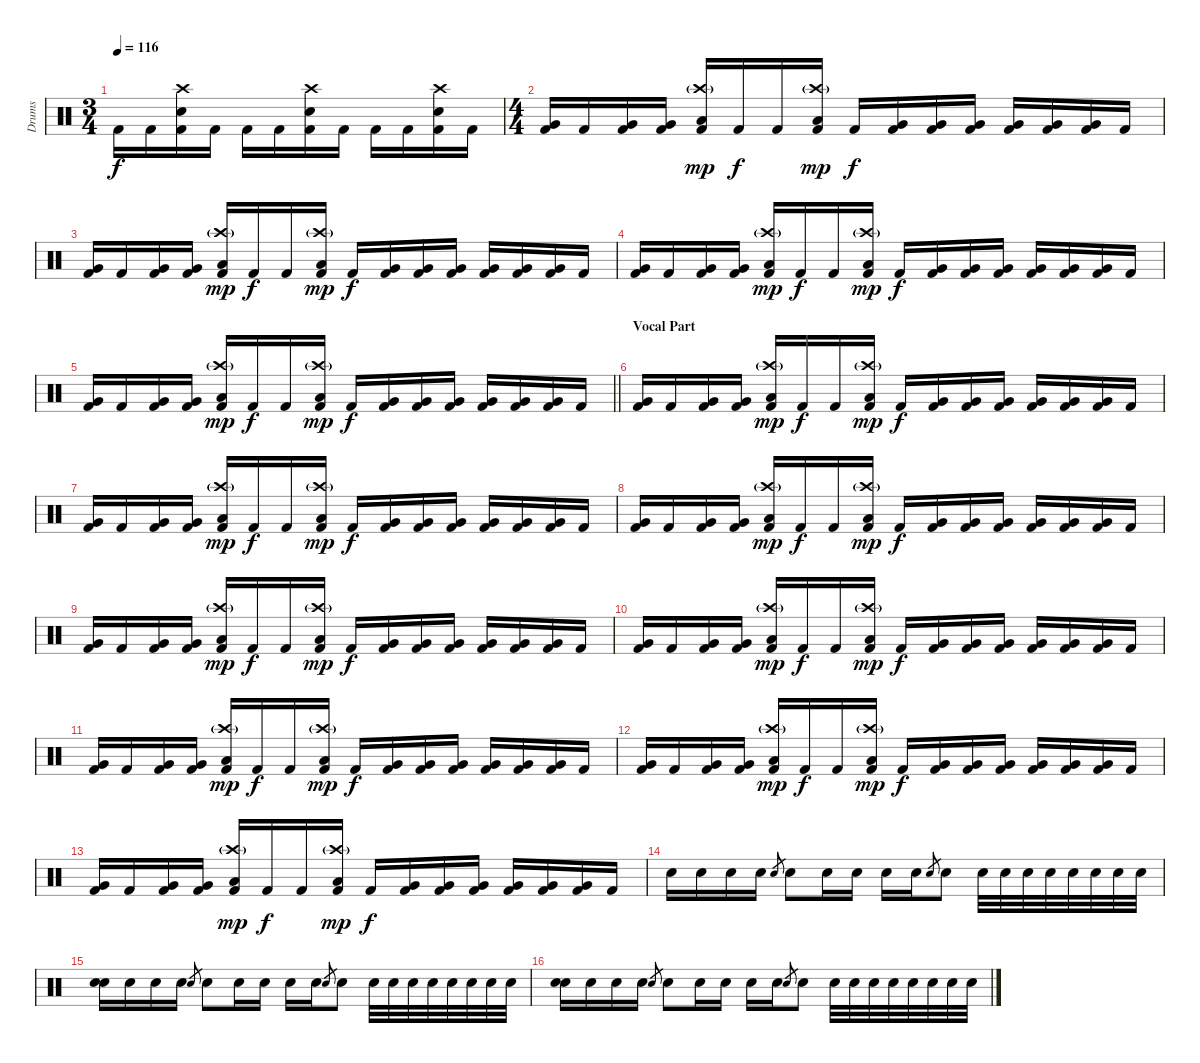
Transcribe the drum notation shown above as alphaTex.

\track ("Drums" "Drums") {instrument percussion}
\staff {score}
\articulation defaults
\ts (3 4)
\tempo 116
\clef neutral
\ks c "Kick (hit) 2".16{dy f} "Kick (hit) 2".16
("Kick (hit) 2" "Electric Snare (hit)" "Crash high (hit)").16 "Kick (hit) 2".16 "Kick (hit) 2".16 "Kick (hit) 2".16 ("Kick (hit) 2" "Electric Snare (hit)" "Crash high (hit)").16 "Kick (hit) 2".16 "Kick (hit) 2".16 "Kick (hit) 2".16 ("Kick (hit) 2" "Electric Snare (hit)" "Crash high (hit)").16 "Kick (hit) 2".16 |
\ts (4 4)
("Kick (hit) 2" "Very Low Tom (hit)").16 "Kick (hit) 2".16 ("Kick (hit) 2" "Very Low Tom (hit)").16 ("Kick (hit) 2" "Very Low Tom (hit)").16 ("Kick (hit) 2" "Low Tom (hit)" "Crash high (hit)"{g}).16{dy mp} "Kick (hit) 2".16{dy f} "Kick (hit) 2".16 ("Kick (hit) 2" "Low Tom (hit)" "Crash high (hit)"{g}).16{dy mp} "Kick (hit) 2".16{dy f} ("Kick (hit) 2" "Very Low Tom (hit)").16 ("Kick (hit) 2" "Very Low Tom (hit)").16 ("Kick (hit) 2" "Very Low Tom (hit)").16 ("Kick (hit) 2" "Very Low Tom (hit)").16 ("Kick (hit) 2" "Very Low Tom (hit)").16 ("Kick (hit) 2" "Very Low Tom (hit)").16 "Kick (hit) 2".16 |
("Kick (hit) 2" "Very Low Tom (hit)").16 "Kick (hit) 2".16 ("Kick (hit) 2" "Very Low Tom (hit)").16 ("Kick (hit) 2" "Very Low Tom (hit)").16 ("Kick (hit) 2" "Low Tom (hit)" "Crash high (hit)"{g}).16{dy mp} "Kick (hit) 2".16{dy f} "Kick (hit) 2".16 ("Kick (hit) 2" "Low Tom (hit)" "Crash high (hit)"{g}).16{dy mp} "Kick (hit) 2".16{dy f} ("Kick (hit) 2" "Very Low Tom (hit)").16 ("Kick (hit) 2" "Very Low Tom (hit)").16 ("Kick (hit) 2" "Very Low Tom (hit)").16 ("Kick (hit) 2" "Very Low Tom (hit)").16 ("Kick (hit) 2" "Very Low Tom (hit)").16 ("Kick (hit) 2" "Very Low Tom (hit)").16 "Kick (hit) 2".16 |
("Kick (hit) 2" "Very Low Tom (hit)").16 "Kick (hit) 2".16 ("Kick (hit) 2" "Very Low Tom (hit)").16 ("Kick (hit) 2" "Very Low Tom (hit)").16 ("Kick (hit) 2" "Low Tom (hit)" "Crash high (hit)"{g}).16{dy mp} "Kick (hit) 2".16{dy f} "Kick (hit) 2".16 ("Kick (hit) 2" "Low Tom (hit)" "Crash high (hit)"{g}).16{dy mp} "Kick (hit) 2".16{dy f} ("Kick (hit) 2" "Very Low Tom (hit)").16 ("Kick (hit) 2" "Very Low Tom (hit)").16 ("Kick (hit) 2" "Very Low Tom (hit)").16 ("Kick (hit) 2" "Very Low Tom (hit)").16 ("Kick (hit) 2" "Very Low Tom (hit)").16 ("Kick (hit) 2" "Very Low Tom (hit)").16 "Kick (hit) 2".16 |
\barLineRight lightlight
("Kick (hit) 2" "Very Low Tom (hit)").16 "Kick (hit) 2".16 ("Kick (hit) 2" "Very Low Tom (hit)").16 ("Kick (hit) 2" "Very Low Tom (hit)").16 ("Kick (hit) 2" "Low Tom (hit)" "Crash high (hit)"{g}).16{dy mp} "Kick (hit) 2".16{dy f} "Kick (hit) 2".16 ("Kick (hit) 2" "Low Tom (hit)" "Crash high (hit)"{g}).16{dy mp} "Kick (hit) 2".16{dy f} ("Kick (hit) 2" "Very Low Tom (hit)").16 ("Kick (hit) 2" "Very Low Tom (hit)").16 ("Kick (hit) 2" "Very Low Tom (hit)").16 ("Kick (hit) 2" "Very Low Tom (hit)").16 ("Kick (hit) 2" "Very Low Tom (hit)").16 ("Kick (hit) 2" "Very Low Tom (hit)").16 "Kick (hit) 2".16 |
\section ("" "Vocal Part")
("Kick (hit) 2" "Very Low Tom (hit)").16 "Kick (hit) 2".16 ("Kick (hit) 2" "Very Low Tom (hit)").16 ("Kick (hit) 2" "Very Low Tom (hit)").16 ("Kick (hit) 2" "Low Tom (hit)" "Crash high (hit)"{g}).16{dy mp} "Kick (hit) 2".16{dy f} "Kick (hit) 2".16 ("Kick (hit) 2" "Low Tom (hit)" "Crash high (hit)"{g}).16{dy mp} "Kick (hit) 2".16{dy f} ("Kick (hit) 2" "Very Low Tom (hit)").16 ("Kick (hit) 2" "Very Low Tom (hit)").16 ("Kick (hit) 2" "Very Low Tom (hit)").16 ("Kick (hit) 2" "Very Low Tom (hit)").16 ("Kick (hit) 2" "Very Low Tom (hit)").16 ("Kick (hit) 2" "Very Low Tom (hit)").16 "Kick (hit) 2".16 |
("Kick (hit) 2" "Very Low Tom (hit)").16 "Kick (hit) 2".16 ("Kick (hit) 2" "Very Low Tom (hit)").16 ("Kick (hit) 2" "Very Low Tom (hit)").16 ("Kick (hit) 2" "Low Tom (hit)" "Crash high (hit)"{g}).16{dy mp} "Kick (hit) 2".16{dy f} "Kick (hit) 2".16 ("Kick (hit) 2" "Low Tom (hit)" "Crash high (hit)"{g}).16{dy mp} "Kick (hit) 2".16{dy f} ("Kick (hit) 2" "Very Low Tom (hit)").16 ("Kick (hit) 2" "Very Low Tom (hit)").16 ("Kick (hit) 2" "Very Low Tom (hit)").16 ("Kick (hit) 2" "Very Low Tom (hit)").16 ("Kick (hit) 2" "Very Low Tom (hit)").16 ("Kick (hit) 2" "Very Low Tom (hit)").16 "Kick (hit) 2".16 |
("Kick (hit) 2" "Very Low Tom (hit)").16 "Kick (hit) 2".16 ("Kick (hit) 2" "Very Low Tom (hit)").16 ("Kick (hit) 2" "Very Low Tom (hit)").16 ("Kick (hit) 2" "Low Tom (hit)" "Crash high (hit)"{g}).16{dy mp} "Kick (hit) 2".16{dy f} "Kick (hit) 2".16 ("Kick (hit) 2" "Low Tom (hit)" "Crash high (hit)"{g}).16{dy mp} "Kick (hit) 2".16{dy f} ("Kick (hit) 2" "Very Low Tom (hit)").16 ("Kick (hit) 2" "Very Low Tom (hit)").16 ("Kick (hit) 2" "Very Low Tom (hit)").16 ("Kick (hit) 2" "Very Low Tom (hit)").16 ("Kick (hit) 2" "Very Low Tom (hit)").16 ("Kick (hit) 2" "Very Low Tom (hit)").16 "Kick (hit) 2".16 |
("Kick (hit) 2" "Very Low Tom (hit)").16 "Kick (hit) 2".16 ("Kick (hit) 2" "Very Low Tom (hit)").16 ("Kick (hit) 2" "Very Low Tom (hit)").16 ("Kick (hit) 2" "Low Tom (hit)" "Crash high (hit)"{g}).16{dy mp} "Kick (hit) 2".16{dy f} "Kick (hit) 2".16 ("Kick (hit) 2" "Low Tom (hit)" "Crash high (hit)"{g}).16{dy mp} "Kick (hit) 2".16{dy f} ("Kick (hit) 2" "Very Low Tom (hit)").16 ("Kick (hit) 2" "Very Low Tom (hit)").16 ("Kick (hit) 2" "Very Low Tom (hit)").16 ("Kick (hit) 2" "Very Low Tom (hit)").16 ("Kick (hit) 2" "Very Low Tom (hit)").16 ("Kick (hit) 2" "Very Low Tom (hit)").16 "Kick (hit) 2".16 |
("Kick (hit) 2" "Very Low Tom (hit)").16 "Kick (hit) 2".16 ("Kick (hit) 2" "Very Low Tom (hit)").16 ("Kick (hit) 2" "Very Low Tom (hit)").16 ("Kick (hit) 2" "Low Tom (hit)" "Crash high (hit)"{g}).16{dy mp} "Kick (hit) 2".16{dy f} "Kick (hit) 2".16 ("Kick (hit) 2" "Low Tom (hit)" "Crash high (hit)"{g}).16{dy mp} "Kick (hit) 2".16{dy f} ("Kick (hit) 2" "Very Low Tom (hit)").16 ("Kick (hit) 2" "Very Low Tom (hit)").16 ("Kick (hit) 2" "Very Low Tom (hit)").16 ("Kick (hit) 2" "Very Low Tom (hit)").16 ("Kick (hit) 2" "Very Low Tom (hit)").16 ("Kick (hit) 2" "Very Low Tom (hit)").16 "Kick (hit) 2".16 |
("Kick (hit) 2" "Very Low Tom (hit)").16 "Kick (hit) 2".16 ("Kick (hit) 2" "Very Low Tom (hit)").16 ("Kick (hit) 2" "Very Low Tom (hit)").16 ("Kick (hit) 2" "Low Tom (hit)" "Crash high (hit)"{g}).16{dy mp} "Kick (hit) 2".16{dy f} "Kick (hit) 2".16 ("Kick (hit) 2" "Low Tom (hit)" "Crash high (hit)"{g}).16{dy mp} "Kick (hit) 2".16{dy f} ("Kick (hit) 2" "Very Low Tom (hit)").16 ("Kick (hit) 2" "Very Low Tom (hit)").16 ("Kick (hit) 2" "Very Low Tom (hit)").16 ("Kick (hit) 2" "Very Low Tom (hit)").16 ("Kick (hit) 2" "Very Low Tom (hit)").16 ("Kick (hit) 2" "Very Low Tom (hit)").16 "Kick (hit) 2".16 |
("Kick (hit) 2" "Very Low Tom (hit)").16 "Kick (hit) 2".16 ("Kick (hit) 2" "Very Low Tom (hit)").16 ("Kick (hit) 2" "Very Low Tom (hit)").16 ("Kick (hit) 2" "Low Tom (hit)" "Crash high (hit)"{g}).16{dy mp} "Kick (hit) 2".16{dy f} "Kick (hit) 2".16 ("Kick (hit) 2" "Low Tom (hit)" "Crash high (hit)"{g}).16{dy mp} "Kick (hit) 2".16{dy f} ("Kick (hit) 2" "Very Low Tom (hit)").16 ("Kick (hit) 2" "Very Low Tom (hit)").16 ("Kick (hit) 2" "Very Low Tom (hit)").16 ("Kick (hit) 2" "Very Low Tom (hit)").16 ("Kick (hit) 2" "Very Low Tom (hit)").16 ("Kick (hit) 2" "Very Low Tom (hit)").16 "Kick (hit) 2".16 |
("Kick (hit) 2" "Very Low Tom (hit)").16 "Kick (hit) 2".16 ("Kick (hit) 2" "Very Low Tom (hit)").16 ("Kick (hit) 2" "Very Low Tom (hit)").16 ("Kick (hit) 2" "Low Tom (hit)" "Crash high (hit)"{g}).16{dy mp} "Kick (hit) 2".16{dy f} "Kick (hit) 2".16 ("Kick (hit) 2" "Low Tom (hit)" "Crash high (hit)"{g}).16{dy mp} "Kick (hit) 2".16{dy f} ("Kick (hit) 2" "Very Low Tom (hit)").16 ("Kick (hit) 2" "Very Low Tom (hit)").16 ("Kick (hit) 2" "Very Low Tom (hit)").16 ("Kick (hit) 2" "Very Low Tom (hit)").16 ("Kick (hit) 2" "Very Low Tom (hit)").16 ("Kick (hit) 2" "Very Low Tom (hit)").16 "Kick (hit) 2".16 |
"Electric Snare (hit)".16 "Electric Snare (hit)".16 "Electric Snare (hit)".16 "Electric Snare (hit)".16 "Electric Snare (hit)".8{gr} "Electric Snare (hit)".8 "Electric Snare (hit)".16 "Electric Snare (hit)".16 "Electric Snare (hit)".16 "Electric Snare (hit)".16 "Electric Snare (hit)".8{gr} "Electric Snare (hit)".8 "Electric Snare (hit)".32 "Electric Snare (hit)".32 "Electric Snare (hit)".32 "Electric Snare (hit)".32 "Electric Snare (hit)".32 "Electric Snare (hit)".32 "Electric Snare (hit)".32 "Electric Snare (hit)".32 |
("Electric Snare (hit)" "Electric Snare (hit)").16 "Electric Snare (hit)".16 "Electric Snare (hit)".16 "Electric Snare (hit)".16 "Electric Snare (hit)".8{gr} "Electric Snare (hit)".8 "Electric Snare (hit)".16 "Electric Snare (hit)".16 "Electric Snare (hit)".16 "Electric Snare (hit)".16 "Electric Snare (hit)".8{gr} "Electric Snare (hit)".8 "Electric Snare (hit)".32 "Electric Snare (hit)".32 "Electric Snare (hit)".32 "Electric Snare (hit)".32 "Electric Snare (hit)".32 "Electric Snare (hit)".32 "Electric Snare (hit)".32 "Electric Snare (hit)".32 |
("Electric Snare (hit)" "Electric Snare (hit)").16 "Electric Snare (hit)".16 "Electric Snare (hit)".16 "Electric Snare (hit)".16 "Electric Snare (hit)".8{gr} "Electric Snare (hit)".8 "Electric Snare (hit)".16 "Electric Snare (hit)".16 "Electric Snare (hit)".16 "Electric Snare (hit)".16 "Electric Snare (hit)".8{gr} "Electric Snare (hit)".8 "Electric Snare (hit)".32 "Electric Snare (hit)".32 "Electric Snare (hit)".32 "Electric Snare (hit)".32 "Electric Snare (hit)".32 "Electric Snare (hit)".32 "Electric Snare (hit)".32 "Electric Snare (hit)".32
